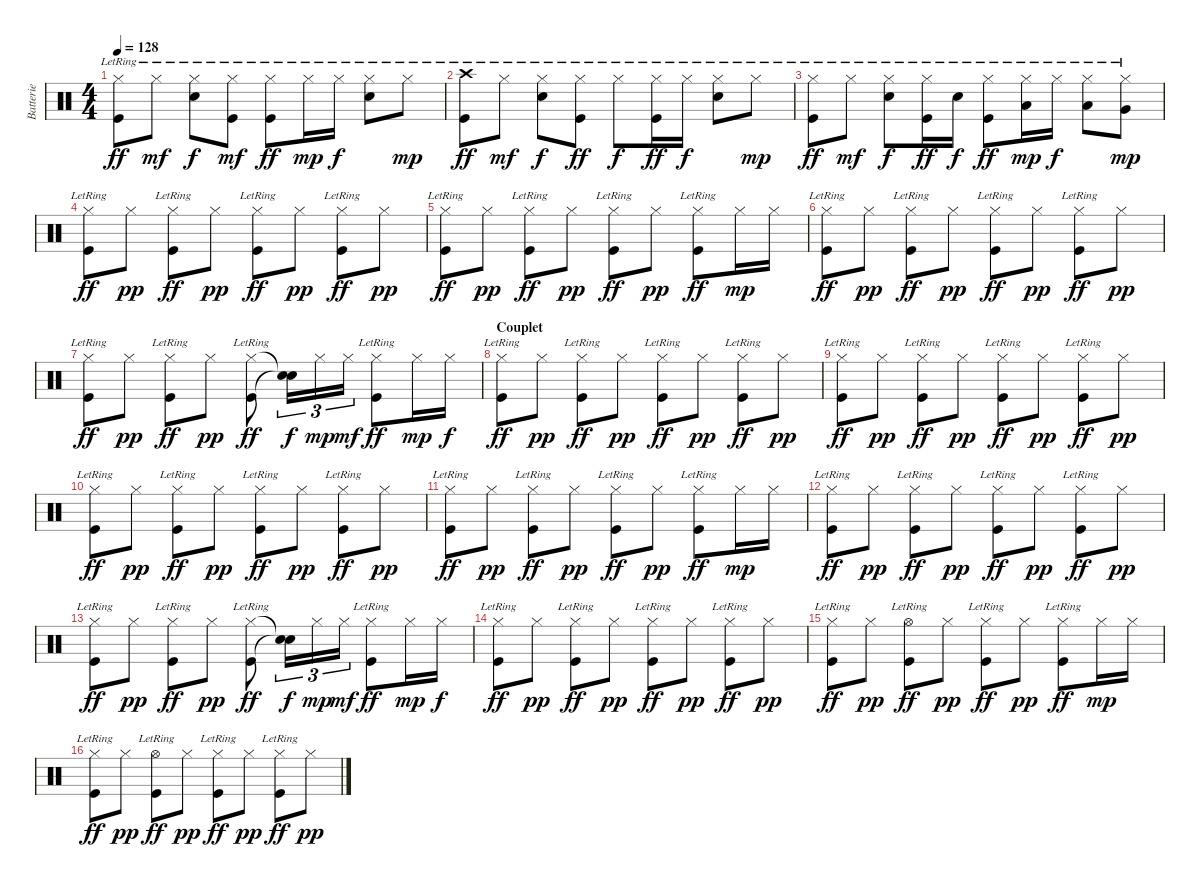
\track ("Batterie" "Batterie") {instrument percussion}
\staff {score}
\articulation defaults
\ts (4 4)
\tempo 128
\clef neutral
\ks c
("Hi-Hat (closed)"{lr} "Kick (hit)"{lr}).8{dy ff} "Hi-Hat (closed)"{lr}.8{dy mf} ("Hi-Hat (closed)"{lr} "Snare (hit) 2"{lr}).8{dy f} ("Hi-Hat (closed)"{lr} "Kick (hit)"{lr}).8{dy mf} ("Hi-Hat (closed)"{lr} "Kick (hit)"{lr}).8{dy ff} "Hi-Hat (closed)"{lr}.16{dy mp} "Hi-Hat (closed)"{lr}.16{dy f} ("Hi-Hat (closed)"{lr} "Snare (hit) 2"{lr}).8 "Hi-Hat (closed)"{lr}.8{dy mp} |
("Crash high (hit)"{lr} "Kick (hit)"{lr}).8{dy ff} "Hi-Hat (closed)"{lr}.8{dy mf} ("Hi-Hat (closed)"{lr} "Snare (hit) 2"{lr}).8{dy f} ("Hi-Hat (closed)"{lr} "Kick (hit)"{lr}).8{dy ff} "Hi-Hat (closed)"{lr}.8{dy f} ("Hi-Hat (closed)"{lr} "Kick (hit)"{lr}).16{dy ff} "Hi-Hat (closed)"{lr}.16{dy f} ("Hi-Hat (closed)"{lr} "Snare (hit) 2"{lr}).8 "Hi-Hat (closed)"{lr}.8{dy mp} |
("Hi-Hat (closed)"{lr} "Kick (hit)"{lr}).8{dy ff} "Hi-Hat (closed)"{lr}.8{dy mf} ("Hi-Hat (closed)"{lr} "Snare (hit) 2"{lr}).8{dy f} ("Hi-Hat (closed)"{lr} "Kick (hit)"{lr}).16{dy ff} "Snare (hit) 2"{lr}.16{dy f} ("Hi-Hat (closed)"{lr} "Kick (hit)"{lr}).8{dy ff} ("Hi-Hat (closed)"{lr} "Low Tom (hit)"{lr}).16{dy mp} "Hi-Hat (closed)"{lr}.16{dy f} ("Hi-Hat (closed)"{lr} "Low Tom (hit)"{lr}).8 ("Hi-Hat (closed)"{lr} "Very Low Tom (hit)"{lr}).8{dy mp} |
("Hi-Hat (closed)" "Kick (hit)"{lr}).8{dy ff} "Hi-Hat (closed)".8{dy pp} ("Hi-Hat (closed)" "Kick (hit)"{lr}).8{dy ff} "Hi-Hat (closed)".8{dy pp} ("Hi-Hat (closed)" "Kick (hit)"{lr}).8{dy ff} "Hi-Hat (closed)".8{dy pp} ("Hi-Hat (closed)" "Kick (hit)"{lr}).8{dy ff} "Hi-Hat (closed)".8{dy pp} |
("Hi-Hat (closed)" "Kick (hit)"{lr}).8{dy ff} "Hi-Hat (closed)".8{dy pp} ("Hi-Hat (closed)" "Kick (hit)"{lr}).8{dy ff} "Hi-Hat (closed)".8{dy pp} ("Hi-Hat (closed)" "Kick (hit)"{lr}).8{dy ff} "Hi-Hat (closed)".8{dy pp} ("Hi-Hat (closed)" "Kick (hit)"{lr}).8{dy ff} "Hi-Hat (closed)".16{dy mp} "Hi-Hat (closed)".16 |
("Hi-Hat (closed)" "Kick (hit)"{lr}).8{dy ff} "Hi-Hat (closed)".8{dy pp} ("Hi-Hat (closed)" "Kick (hit)"{lr}).8{dy ff} "Hi-Hat (closed)".8{dy pp} ("Hi-Hat (closed)" "Kick (hit)"{lr}).8{dy ff} "Hi-Hat (closed)".8{dy pp} ("Hi-Hat (closed)" "Kick (hit)"{lr}).8{dy ff} "Hi-Hat (closed)".8{dy pp} |
("Hi-Hat (closed)" "Kick (hit)"{lr}).8{dy ff} "Hi-Hat (closed)".8{dy pp} ("Hi-Hat (closed)" "Kick (hit)"{lr}).8{dy ff} "Hi-Hat (closed)".8{dy pp} ("Hi-Hat (closed)" "Kick (hit)"{lr}).8{dy ff} ("Snare (hit)"{t} "Snare (hit)"{t}).16{tu (3 2) dy f} "Hi-Hat (closed)".16{tu (3 2) dy mp} "Hi-Hat (closed)".16{tu (3 2) dy mf} ("Hi-Hat (closed)" "Kick (hit)"{lr}).8{dy ff} "Hi-Hat (closed)".16{dy mp} "Hi-Hat (closed)".16{dy f} |
\section ("" "Couplet")
("Hi-Hat (closed)" "Kick (hit)"{lr}).8{dy ff} "Hi-Hat (closed)".8{dy pp} ("Hi-Hat (closed)" "Kick (hit)"{lr}).8{dy ff} "Hi-Hat (closed)".8{dy pp} ("Hi-Hat (closed)" "Kick (hit)"{lr}).8{dy ff} "Hi-Hat (closed)".8{dy pp} ("Hi-Hat (closed)" "Kick (hit)"{lr}).8{dy ff} "Hi-Hat (closed)".8{dy pp} |
("Hi-Hat (closed)" "Kick (hit)"{lr}).8{dy ff} "Hi-Hat (closed)".8{dy pp} ("Hi-Hat (closed)" "Kick (hit)"{lr}).8{dy ff} "Hi-Hat (closed)".8{dy pp} ("Hi-Hat (closed)" "Kick (hit)"{lr}).8{dy ff} "Hi-Hat (closed)".8{dy pp} ("Hi-Hat (closed)" "Kick (hit)"{lr}).8{dy ff} "Hi-Hat (closed)".8{dy pp} |
("Hi-Hat (closed)" "Kick (hit)"{lr}).8{dy ff} "Hi-Hat (closed)".8{dy pp} ("Hi-Hat (closed)" "Kick (hit)"{lr}).8{dy ff} "Hi-Hat (closed)".8{dy pp} ("Hi-Hat (closed)" "Kick (hit)"{lr}).8{dy ff} "Hi-Hat (closed)".8{dy pp} ("Hi-Hat (closed)" "Kick (hit)"{lr}).8{dy ff} "Hi-Hat (closed)".8{dy pp} |
("Hi-Hat (closed)" "Kick (hit)"{lr}).8{dy ff} "Hi-Hat (closed)".8{dy pp} ("Hi-Hat (closed)" "Kick (hit)"{lr}).8{dy ff} "Hi-Hat (closed)".8{dy pp} ("Hi-Hat (closed)" "Kick (hit)"{lr}).8{dy ff} "Hi-Hat (closed)".8{dy pp} ("Hi-Hat (closed)" "Kick (hit)"{lr}).8{dy ff} "Hi-Hat (closed)".16{dy mp} "Hi-Hat (closed)".16 |
("Hi-Hat (closed)" "Kick (hit)"{lr}).8{dy ff} "Hi-Hat (closed)".8{dy pp} ("Hi-Hat (closed)" "Kick (hit)"{lr}).8{dy ff} "Hi-Hat (closed)".8{dy pp} ("Hi-Hat (closed)" "Kick (hit)"{lr}).8{dy ff} "Hi-Hat (closed)".8{dy pp} ("Hi-Hat (closed)" "Kick (hit)"{lr}).8{dy ff} "Hi-Hat (closed)".8{dy pp} |
("Hi-Hat (closed)" "Kick (hit)"{lr}).8{dy ff} "Hi-Hat (closed)".8{dy pp} ("Hi-Hat (closed)" "Kick (hit)"{lr}).8{dy ff} "Hi-Hat (closed)".8{dy pp} ("Hi-Hat (closed)" "Kick (hit)"{lr}).8{dy ff} ("Snare (hit)"{t} "Snare (hit)"{t}).16{tu (3 2) dy f} "Hi-Hat (closed)".16{tu (3 2) dy mp} "Hi-Hat (closed)".16{tu (3 2) dy mf} ("Hi-Hat (closed)" "Kick (hit)"{lr}).8{dy ff} "Hi-Hat (closed)".16{dy mp} "Hi-Hat (closed)".16{dy f} |
("Hi-Hat (closed)" "Kick (hit)"{lr}).8{dy ff} "Hi-Hat (closed)".8{dy pp} ("Hi-Hat (closed)" "Kick (hit)"{lr}).8{dy ff} "Hi-Hat (closed)".8{dy pp} ("Hi-Hat (closed)" "Kick (hit)"{lr}).8{dy ff} "Hi-Hat (closed)".8{dy pp} ("Hi-Hat (closed)" "Kick (hit)"{lr}).8{dy ff} "Hi-Hat (closed)".8{dy pp} |
("Hi-Hat (closed)" "Kick (hit)"{lr}).8{dy ff} "Hi-Hat (closed)".8{dy pp} ("Hi-Hat (open)" "Kick (hit)"{lr}).8{dy ff} "Hi-Hat (closed)".8{dy pp} ("Hi-Hat (closed)" "Kick (hit)"{lr}).8{dy ff} "Hi-Hat (closed)".8{dy pp} ("Hi-Hat (closed)" "Kick (hit)"{lr}).8{dy ff} "Hi-Hat (closed)".16{dy mp} "Hi-Hat (closed)".16 |
("Hi-Hat (closed)" "Kick (hit)"{lr}).8{dy ff} "Hi-Hat (closed)".8{dy pp} ("Hi-Hat (open)" "Kick (hit)"{lr}).8{dy ff} "Hi-Hat (closed)".8{dy pp} ("Hi-Hat (closed)" "Kick (hit)"{lr}).8{dy ff} "Hi-Hat (closed)".8{dy pp} ("Hi-Hat (closed)" "Kick (hit)"{lr}).8{dy ff} "Hi-Hat (closed)".8{dy pp}
